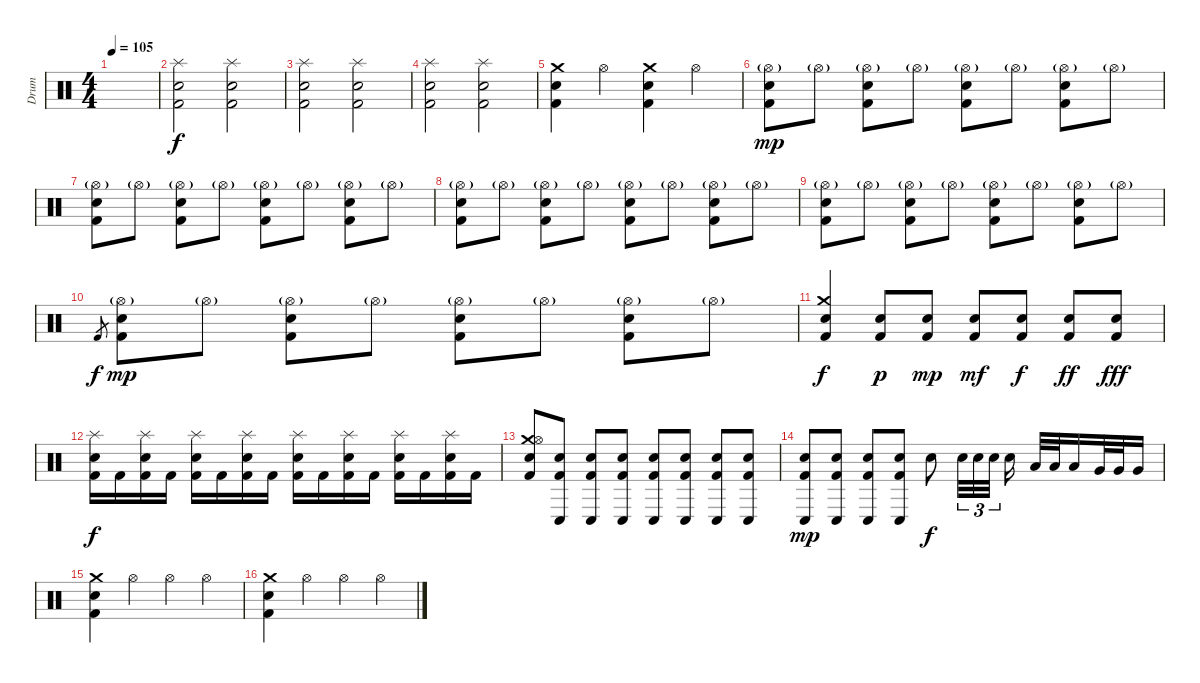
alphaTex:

\track ("Drum" "Drum") {instrument percussion}
\staff {score}
\articulation defaults
\ts (4 4)
\tempo 105
\clef neutral
\ks c
|
("Splash (hit)" "Snare (hit) 2" "Kick (hit) 2").2 ("Splash (hit)" "Snare (hit) 2" "Kick (hit) 2").2 |
("Splash (hit)" "Snare (hit) 2" "Kick (hit) 2").2 ("Splash (hit)" "Snare (hit) 2" "Kick (hit) 2").2 |
("Splash (hit)" "Snare (hit) 2" "Kick (hit) 2").2 ("Splash (hit)" "Snare (hit) 2" "Kick (hit) 2").2 |
("Crash medium (hit)" "Snare (hit) 2" "Kick (hit) 2").4 "Hi-Hat (open)".4 ("Crash medium (hit)" "Snare (hit) 2" "Kick (hit) 2").4 "Hi-Hat (open)".4 |
("Hi-Hat (open)"{g} "Snare (hit) 2" "Kick (hit) 2").8{dy mp} "Hi-Hat (open)"{g}.8 ("Hi-Hat (open)"{g} "Electric Snare (hit)" "Kick (hit) 2").8 "Hi-Hat (open)"{g}.8 ("Hi-Hat (open)"{g} "Snare (hit) 2" "Kick (hit) 2").8 "Hi-Hat (open)"{g}.8 ("Hi-Hat (open)"{g} "Electric Snare (hit)" "Kick (hit) 2").8 "Hi-Hat (open)"{g}.8 |
("Hi-Hat (open)"{g} "Snare (hit) 2" "Kick (hit) 2").8 "Hi-Hat (open)"{g}.8 ("Hi-Hat (open)"{g} "Electric Snare (hit)" "Kick (hit) 2").8 "Hi-Hat (open)"{g}.8 ("Hi-Hat (open)"{g} "Snare (hit) 2" "Kick (hit) 2").8 "Hi-Hat (open)"{g}.8 ("Hi-Hat (open)"{g} "Electric Snare (hit)" "Kick (hit) 2").8 "Hi-Hat (open)"{g}.8 |
("Hi-Hat (open)"{g} "Snare (hit) 2" "Kick (hit) 2").8 "Hi-Hat (open)"{g}.8 ("Hi-Hat (open)"{g} "Electric Snare (hit)" "Kick (hit) 2").8 "Hi-Hat (open)"{g}.8 ("Hi-Hat (open)"{g} "Snare (hit) 2" "Kick (hit) 2").8 "Hi-Hat (open)"{g}.8 ("Hi-Hat (open)"{g} "Electric Snare (hit)" "Kick (hit) 2").8 "Hi-Hat (open)"{g}.8 |
("Hi-Hat (open)"{g} "Snare (hit) 2" "Kick (hit) 2").8 "Hi-Hat (open)"{g}.8 ("Hi-Hat (open)"{g} "Electric Snare (hit)" "Kick (hit) 2").8 "Hi-Hat (open)"{g}.8 ("Hi-Hat (open)"{g} "Snare (hit) 2" "Kick (hit) 2").8 "Hi-Hat (open)"{g}.8 ("Hi-Hat (open)"{g} "Electric Snare (hit)" "Kick (hit) 2").8 "Hi-Hat (open)"{g}.8 |
"Kick (hit) 2".8{gr dy f} ("Hi-Hat (open)"{g} "Snare (hit) 2" "Kick (hit) 2").8{dy mp} "Hi-Hat (open)"{g}.8 ("Hi-Hat (open)"{g} "Electric Snare (hit)" "Kick (hit) 2").8 "Hi-Hat (open)"{g}.8 ("Hi-Hat (open)"{g} "Snare (hit) 2" "Kick (hit) 2").8 "Hi-Hat (open)"{g}.8 ("Hi-Hat (open)"{g} "Electric Snare (hit)" "Kick (hit) 2").8 "Hi-Hat (open)"{g}.8 |
("Crash medium (hit)" "Electric Snare (hit)" "Kick (hit) 2").4{dy f} ("Electric Snare (hit)" "Kick (hit) 2").8{dy p} ("Electric Snare (hit)" "Kick (hit) 2").8{dy mp} ("Electric Snare (hit)" "Kick (hit) 2").8{dy mf} ("Electric Snare (hit)" "Kick (hit) 2").8{dy f} ("Electric Snare (hit)" "Kick (hit) 2").8{dy ff} ("Electric Snare (hit)" "Kick (hit) 2").8{dy fff} |
("Splash (hit)" "Electric Snare (hit)" "Kick (hit) 2").16{dy f} "Kick (hit) 2".16 ("Splash (hit)" "Electric Snare (hit)" "Kick (hit) 2").16 "Kick (hit) 2".16 ("Splash (hit)" "Electric Snare (hit)" "Kick (hit) 2").16 "Kick (hit) 2".16 ("Splash (hit)" "Electric Snare (hit)" "Kick (hit) 2").16 "Kick (hit) 2".16 ("Splash (hit)" "Electric Snare (hit)" "Kick (hit) 2").16 "Kick (hit) 2".16 ("Splash (hit)" "Electric Snare (hit)" "Kick (hit) 2").16 "Kick (hit) 2".16 ("Splash (hit)" "Electric Snare (hit)" "Kick (hit) 2").16 "Kick (hit) 2".16 ("Splash (hit)" "Electric Snare (hit)" "Kick (hit) 2").16 "Kick (hit) 2".16 |
("Crash medium (hit)" "Hi-Hat (open)" "Electric Snare (hit)" "Kick (hit) 2").8 ("Conga low (hit)" "Electric Snare (hit)" "Kick (hit) 2").8 ("Conga low (hit)" "Electric Snare (hit)" "Kick (hit) 2").8 ("Conga low (hit)" "Electric Snare (hit)" "Kick (hit) 2").8 ("Conga low (hit)" "Electric Snare (hit)" "Kick (hit) 2").8 ("Conga low (hit)" "Electric Snare (hit)" "Kick (hit) 2").8 ("Conga low (hit)" "Electric Snare (hit)" "Kick (hit) 2").8 ("Conga low (hit)" "Electric Snare (hit)" "Kick (hit) 2").8 |
("Conga low (hit)" "Electric Snare (hit)" "Kick (hit) 2").8{dy mp} ("Conga low (hit)" "Electric Snare (hit)" "Kick (hit) 2").8 ("Conga low (hit)" "Electric Snare (hit)" "Kick (hit) 2").8 ("Conga low (hit)" "Electric Snare (hit)" "Kick (hit) 2").8 "Electric Snare (hit)".8{dy f} "Electric Snare (hit)".32{tu (3 2)} "Electric Snare (hit)".32{tu (3 2)} "Electric Snare (hit)".32{tu (3 2)} "Electric Snare (hit)".16 "Low Tom (hit)".32 "Low Tom (hit)".32 "Low Tom (hit)".16 "Very Low Tom (hit)".32 "Very Low Tom (hit)".32 "Very Low Tom (hit)".16 |
("Crash medium (hit)" "Snare (hit) 2" "Kick (hit) 2").4 "Hi-Hat (open)".4 "Hi-Hat (open)".4 "Hi-Hat (open)".4 |
("Crash medium (hit)" "Snare (hit) 2" "Kick (hit) 2").4 "Hi-Hat (open)".4 "Hi-Hat (open)".4 "Hi-Hat (open)".4
